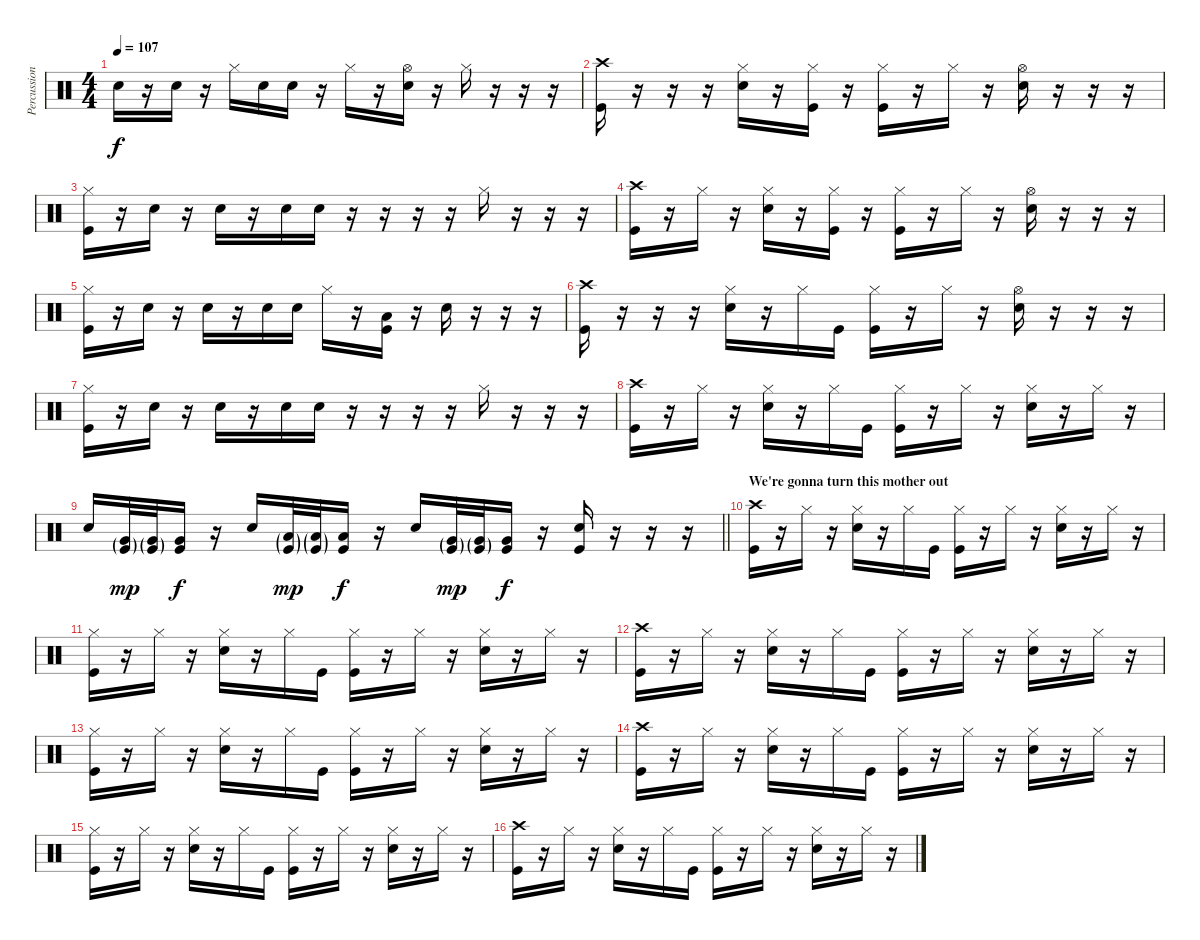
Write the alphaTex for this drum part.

\track ("Percussion" "Percussion") {instrument percussion}
\staff {score}
\articulation defaults
\ts (4 4)
\tempo 107
\clef neutral
\ks c "Snare (hit) 2".16{dy f}
r.16 "Snare (hit) 2".16 r.16 "Hi-Hat (closed)".16 "Snare (hit) 2".16 "Snare (hit) 2".16 r.16 "Hi-Hat (closed)".16 r.16 ("Hi-Hat (open)" "Snare (hit) 2").16 r.16 "Hi-Hat (closed)".16 r.16 r.16 r.16 |
("Crash high (hit)" "Kick (hit)").16 r.16 r.16 r.16 ("Hi-Hat (closed)" "Snare (hit) 2").16 r.16 ("Hi-Hat (closed)" "Kick (hit)").16 r.16 ("Hi-Hat (closed)" "Kick (hit)").16 r.16 "Hi-Hat (closed)".16 r.16 ("Hi-Hat (open)" "Snare (hit) 2").16 r.16 r.16 r.16 |
("Hi-Hat (closed)" "Kick (hit)").16 r.16 "Snare (hit) 2".16 r.16 "Snare (hit) 2".16 r.16 "Snare (hit) 2".16 "Snare (hit) 2".16 r.16 r.16 r.16 r.16 "Hi-Hat (closed)".16 r.16 r.16 r.16 |
("Crash high (hit)" "Kick (hit)").16 r.16 "Hi-Hat (closed)".16 r.16 ("Hi-Hat (closed)" "Snare (hit) 2").16 r.16 ("Hi-Hat (closed)" "Kick (hit)").16 r.16 ("Hi-Hat (closed)" "Kick (hit)").16 r.16 "Hi-Hat (closed)".16 r.16 ("Hi-Hat (open)" "Snare (hit) 2").16 r.16 r.16 r.16 |
("Hi-Hat (closed)" "Kick (hit)").16 r.16 "Snare (hit) 2".16 r.16 "Snare (hit) 2".16 r.16 "Snare (hit) 2".16 "Snare (hit) 2".16 "Hi-Hat (closed)".16 r.16 ("Low Tom (hit)" "Kick (hit)").16 r.16 "Snare (hit) 2".16 r.16 r.16 r.16 |
("Crash high (hit)" "Kick (hit)").16 r.16 r.16 r.16 ("Hi-Hat (closed)" "Snare (hit) 2").16 r.16 "Hi-Hat (closed)".16 "Kick (hit)".16 ("Hi-Hat (closed)" "Kick (hit)").16 r.16 "Hi-Hat (closed)".16 r.16 ("Hi-Hat (open)" "Snare (hit) 2").16 r.16 r.16 r.16 |
("Hi-Hat (closed)" "Kick (hit)").16 r.16 "Snare (hit) 2".16 r.16 "Snare (hit) 2".16 r.16 "Snare (hit) 2".16 "Snare (hit) 2".16 r.16 r.16 r.16 r.16 "Hi-Hat (closed)".16 r.16 r.16 r.16 |
("Crash high (hit)" "Kick (hit)").16 r.16 "Hi-Hat (closed)".16 r.16 ("Hi-Hat (closed)" "Snare (hit) 2").16 r.16 "Hi-Hat (closed)".16 "Kick (hit)".16 ("Hi-Hat (closed)" "Kick (hit)").16 r.16 "Hi-Hat (closed)".16 r.16 ("Hi-Hat (closed)" "Snare (hit) 2").16 r.16 "Hi-Hat (closed)".16 r.16 |
\barLineRight lightlight "Snare (hit) 2".16
("Very Low Tom (hit)"{g} "Kick (hit)"{g}).32{dy mp} ("Very Low Tom (hit)"{g} "Kick (hit)"{g}).32 ("Very Low Tom (hit)" "Kick (hit)").16{dy f} r.16 "Snare (hit) 2".16 ("Low Tom (hit)"{g} "Kick (hit)"{g}).32{dy mp} ("Low Tom (hit)"{g} "Kick (hit)"{g}).32 ("Low Tom (hit)" "Kick (hit)").16{dy f} r.16 "Snare (hit) 2".16 ("Very Low Tom (hit)"{g} "Kick (hit)"{g}).32{dy mp} ("Very Low Tom (hit)"{g} "Kick (hit)"{g}).32 ("Very Low Tom (hit)" "Kick (hit)").16{dy f} r.16 ("Snare (hit) 2" "Kick (hit)").16 r.16 r.16 r.16 |
\section ("" "We're gonna turn this mother out")
("Crash high (hit)" "Kick (hit)").16 r.16 "Hi-Hat (closed)".16 r.16 ("Hi-Hat (closed)" "Snare (hit) 2").16 r.16 "Hi-Hat (closed)".16 "Kick (hit)".16 ("Hi-Hat (closed)" "Kick (hit)").16 r.16 "Hi-Hat (closed)".16 r.16 ("Hi-Hat (closed)" "Snare (hit) 2").16 r.16 "Hi-Hat (closed)".16 r.16 |
("Hi-Hat (closed)" "Kick (hit)").16 r.16 "Hi-Hat (closed)".16 r.16 ("Hi-Hat (closed)" "Snare (hit) 2").16 r.16 "Hi-Hat (closed)".16 "Kick (hit)".16 ("Hi-Hat (closed)" "Kick (hit)").16 r.16 "Hi-Hat (closed)".16 r.16 ("Hi-Hat (closed)" "Snare (hit) 2").16 r.16 "Hi-Hat (closed)".16 r.16 |
("Crash high (hit)" "Kick (hit)").16 r.16 "Hi-Hat (closed)".16 r.16 ("Hi-Hat (closed)" "Snare (hit) 2").16 r.16 "Hi-Hat (closed)".16 "Kick (hit)".16 ("Hi-Hat (closed)" "Kick (hit)").16 r.16 "Hi-Hat (closed)".16 r.16 ("Hi-Hat (closed)" "Snare (hit) 2").16 r.16 "Hi-Hat (closed)".16 r.16 |
("Hi-Hat (closed)" "Kick (hit)").16 r.16 "Hi-Hat (closed)".16 r.16 ("Hi-Hat (closed)" "Snare (hit) 2").16 r.16 "Hi-Hat (closed)".16 "Kick (hit)".16 ("Hi-Hat (closed)" "Kick (hit)").16 r.16 "Hi-Hat (closed)".16 r.16 ("Hi-Hat (closed)" "Snare (hit) 2").16 r.16 "Hi-Hat (closed)".16 r.16 |
("Crash high (hit)" "Kick (hit)").16 r.16 "Hi-Hat (closed)".16 r.16 ("Hi-Hat (closed)" "Snare (hit) 2").16 r.16 "Hi-Hat (closed)".16 "Kick (hit)".16 ("Hi-Hat (closed)" "Kick (hit)").16 r.16 "Hi-Hat (closed)".16 r.16 ("Hi-Hat (closed)" "Snare (hit) 2").16 r.16 "Hi-Hat (closed)".16 r.16 |
("Hi-Hat (closed)" "Kick (hit)").16 r.16 "Hi-Hat (closed)".16 r.16 ("Hi-Hat (closed)" "Snare (hit) 2").16 r.16 "Hi-Hat (closed)".16 "Kick (hit)".16 ("Hi-Hat (closed)" "Kick (hit)").16 r.16 "Hi-Hat (closed)".16 r.16 ("Hi-Hat (closed)" "Snare (hit) 2").16 r.16 "Hi-Hat (closed)".16 r.16 |
("Crash high (hit)" "Kick (hit)").16 r.16 "Hi-Hat (closed)".16 r.16 ("Hi-Hat (closed)" "Snare (hit) 2").16 r.16 "Hi-Hat (closed)".16 "Kick (hit)".16 ("Hi-Hat (closed)" "Kick (hit)").16 r.16 "Hi-Hat (closed)".16 r.16 ("Hi-Hat (closed)" "Snare (hit) 2").16 r.16 "Hi-Hat (closed)".16 r.16
